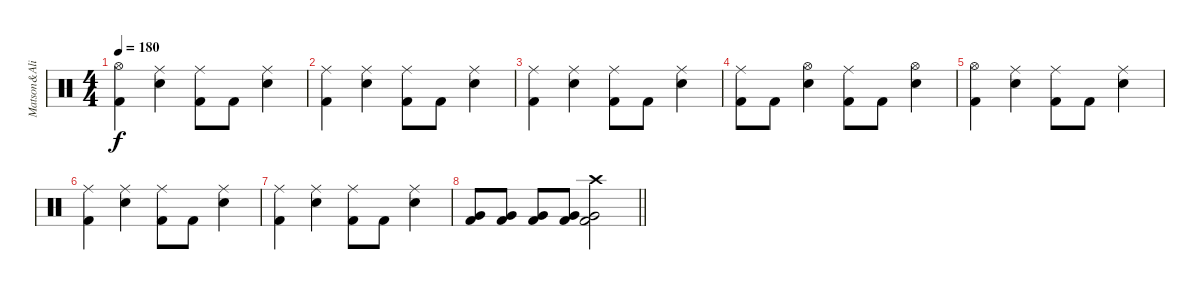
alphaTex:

\track ("Matson&Ali" "Matson&Ali") {instrument percussion}
\staff {score}
\articulation defaults
\ts (4 4)
\tempo 180
\clef neutral
\ks c
("Hi-Hat (open)" "Kick (hit) 2").4{dy f} ("Ride (middle)" "Snare (hit) 2").4 ("Ride (middle)" "Kick (hit) 2").8 "Kick (hit) 2".8 ("Ride (middle)" "Snare (hit) 2").4 |
("Ride (middle)" "Kick (hit) 2").4 ("Ride (middle)" "Snare (hit) 2").4 ("Ride (middle)" "Kick (hit) 2").8 "Kick (hit) 2".8 ("Ride (middle)" "Snare (hit) 2").4 |
("Ride (middle)" "Kick (hit) 2").4 ("Ride (middle)" "Snare (hit) 2").4 ("Ride (middle)" "Kick (hit) 2").8 "Kick (hit) 2".8 ("Ride (middle)" "Snare (hit) 2").4 |
("Ride (middle)" "Kick (hit) 2").8 "Kick (hit) 2".8 ("Hi-Hat (open)" "Snare (hit) 2").4 ("Ride (middle)" "Kick (hit) 2").8 "Kick (hit) 2".8 ("Hi-Hat (open)" "Snare (hit) 2").4 |
("Hi-Hat (open)" "Kick (hit) 2").4 ("Ride (middle)" "Snare (hit) 2").4 ("Ride (middle)" "Kick (hit) 2").8 "Kick (hit) 2".8 ("Ride (middle)" "Snare (hit) 2").4 |
("Ride (middle)" "Kick (hit) 2").4 ("Ride (middle)" "Snare (hit) 2").4 ("Ride (middle)" "Kick (hit) 2").8 "Kick (hit) 2".8 ("Ride (middle)" "Snare (hit) 2").4 |
("Ride (middle)" "Kick (hit) 2").4 ("Ride (middle)" "Snare (hit) 2").4 ("Ride (middle)" "Kick (hit) 2").8 "Kick (hit) 2".8 ("Ride (middle)" "Snare (hit) 2").4 |
\barLineRight lightlight
("Very Low Tom (hit)" "Kick (hit) 2").8 ("Very Low Tom (hit)" "Kick (hit) 2").8 ("Very Low Tom (hit)" "Kick (hit) 2").8 ("Very Low Tom (hit)" "Kick (hit) 2").8 ("Crash high (hit)" "Very Low Tom (hit)" "Kick (hit) 2").2
